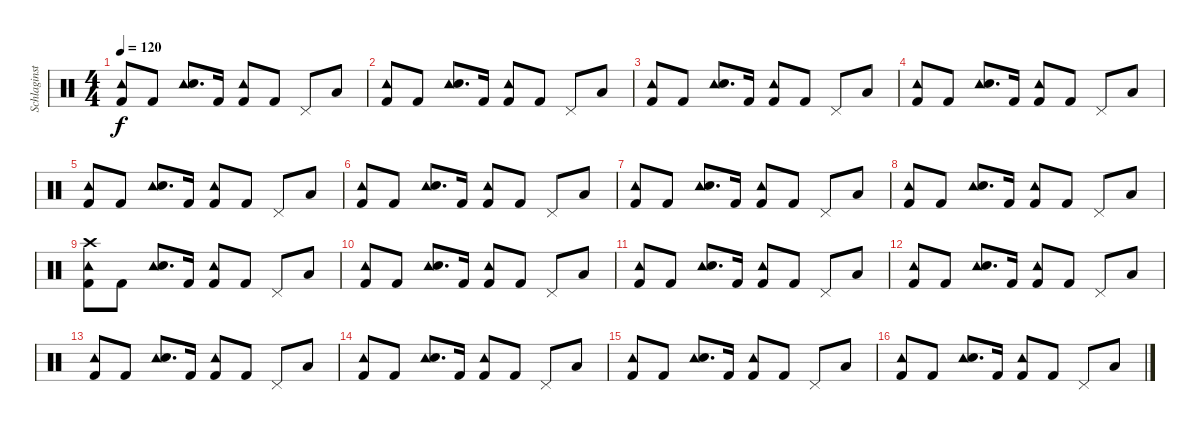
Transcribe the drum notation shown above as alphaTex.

\track ("Schlaginstrumente - Auswahl" "Schlaginst") {instrument percussion}
\staff {score}
\articulation defaults
\ts (4 4)
\tempo 120
\clef neutral
\ks c
("Tambourine (hit)" "Kick (hit) 2").8{dy f} "Kick (hit) 2".8 ("Tambourine (hit)" "Snare (hit) 2").8{d} "Kick (hit) 2".16 ("Tambourine (hit)" "Kick (hit) 2").8 "Kick (hit) 2".8 "Pedal Hi-Hat (hit)".8 "Low Tom (hit)".8 |
("Tambourine (hit)" "Kick (hit) 2").8 "Kick (hit) 2".8 ("Tambourine (hit)" "Snare (hit) 2").8{d} "Kick (hit) 2".16 ("Tambourine (hit)" "Kick (hit) 2").8 "Kick (hit) 2".8 "Pedal Hi-Hat (hit)".8 "Low Tom (hit)".8 |
("Tambourine (hit)" "Kick (hit) 2").8 "Kick (hit) 2".8 ("Tambourine (hit)" "Snare (hit) 2").8{d} "Kick (hit) 2".16 ("Tambourine (hit)" "Kick (hit) 2").8 "Kick (hit) 2".8 "Pedal Hi-Hat (hit)".8 "Low Tom (hit)".8 |
("Tambourine (hit)" "Kick (hit) 2").8 "Kick (hit) 2".8 ("Tambourine (hit)" "Snare (hit) 2").8{d} "Kick (hit) 2".16 ("Tambourine (hit)" "Kick (hit) 2").8 "Kick (hit) 2".8 "Pedal Hi-Hat (hit)".8 "Low Tom (hit)".8 |
("Tambourine (hit)" "Kick (hit) 2").8 "Kick (hit) 2".8 ("Tambourine (hit)" "Snare (hit) 2").8{d} "Kick (hit) 2".16 ("Tambourine (hit)" "Kick (hit) 2").8 "Kick (hit) 2".8 "Pedal Hi-Hat (hit)".8 "Low Tom (hit)".8 |
("Tambourine (hit)" "Kick (hit) 2").8 "Kick (hit) 2".8 ("Tambourine (hit)" "Snare (hit) 2").8{d} "Kick (hit) 2".16 ("Tambourine (hit)" "Kick (hit) 2").8 "Kick (hit) 2".8 "Pedal Hi-Hat (hit)".8 "Low Tom (hit)".8 |
("Tambourine (hit)" "Kick (hit) 2").8 "Kick (hit) 2".8 ("Tambourine (hit)" "Snare (hit) 2").8{d} "Kick (hit) 2".16 ("Tambourine (hit)" "Kick (hit) 2").8 "Kick (hit) 2".8 "Pedal Hi-Hat (hit)".8 "Low Tom (hit)".8 |
("Tambourine (hit)" "Kick (hit) 2").8 "Kick (hit) 2".8 ("Tambourine (hit)" "Snare (hit) 2").8{d} "Kick (hit) 2".16 ("Tambourine (hit)" "Kick (hit) 2").8 "Kick (hit) 2".8 "Pedal Hi-Hat (hit)".8 "Low Tom (hit)".8 |
("Crash high (hit)" "Tambourine (hit)" "Kick (hit) 2").8 "Kick (hit) 2".8 ("Tambourine (hit)" "Snare (hit) 2").8{d} "Kick (hit) 2".16 ("Tambourine (hit)" "Kick (hit) 2").8 "Kick (hit) 2".8 "Pedal Hi-Hat (hit)".8 "Low Tom (hit)".8 |
("Tambourine (hit)" "Kick (hit) 2").8 "Kick (hit) 2".8 ("Tambourine (hit)" "Snare (hit) 2").8{d} "Kick (hit) 2".16 ("Tambourine (hit)" "Kick (hit) 2").8 "Kick (hit) 2".8 "Pedal Hi-Hat (hit)".8 "Low Tom (hit)".8 |
("Tambourine (hit)" "Kick (hit) 2").8 "Kick (hit) 2".8 ("Tambourine (hit)" "Snare (hit) 2").8{d} "Kick (hit) 2".16 ("Tambourine (hit)" "Kick (hit) 2").8 "Kick (hit) 2".8 "Pedal Hi-Hat (hit)".8 "Low Tom (hit)".8 |
("Tambourine (hit)" "Kick (hit) 2").8 "Kick (hit) 2".8 ("Tambourine (hit)" "Snare (hit) 2").8{d} "Kick (hit) 2".16 ("Tambourine (hit)" "Kick (hit) 2").8 "Kick (hit) 2".8 "Pedal Hi-Hat (hit)".8 "Low Tom (hit)".8 |
("Tambourine (hit)" "Kick (hit) 2").8 "Kick (hit) 2".8 ("Tambourine (hit)" "Snare (hit) 2").8{d} "Kick (hit) 2".16 ("Tambourine (hit)" "Kick (hit) 2").8 "Kick (hit) 2".8 "Pedal Hi-Hat (hit)".8 "Low Tom (hit)".8 |
("Tambourine (hit)" "Kick (hit) 2").8 "Kick (hit) 2".8 ("Tambourine (hit)" "Snare (hit) 2").8{d} "Kick (hit) 2".16 ("Tambourine (hit)" "Kick (hit) 2").8 "Kick (hit) 2".8 "Pedal Hi-Hat (hit)".8 "Low Tom (hit)".8 |
("Tambourine (hit)" "Kick (hit) 2").8 "Kick (hit) 2".8 ("Tambourine (hit)" "Snare (hit) 2").8{d} "Kick (hit) 2".16 ("Tambourine (hit)" "Kick (hit) 2").8 "Kick (hit) 2".8 "Pedal Hi-Hat (hit)".8 "Low Tom (hit)".8 |
("Tambourine (hit)" "Kick (hit) 2").8 "Kick (hit) 2".8 ("Tambourine (hit)" "Snare (hit) 2").8{d} "Kick (hit) 2".16 ("Tambourine (hit)" "Kick (hit) 2").8 "Kick (hit) 2".8 "Pedal Hi-Hat (hit)".8 "Low Tom (hit)".8
